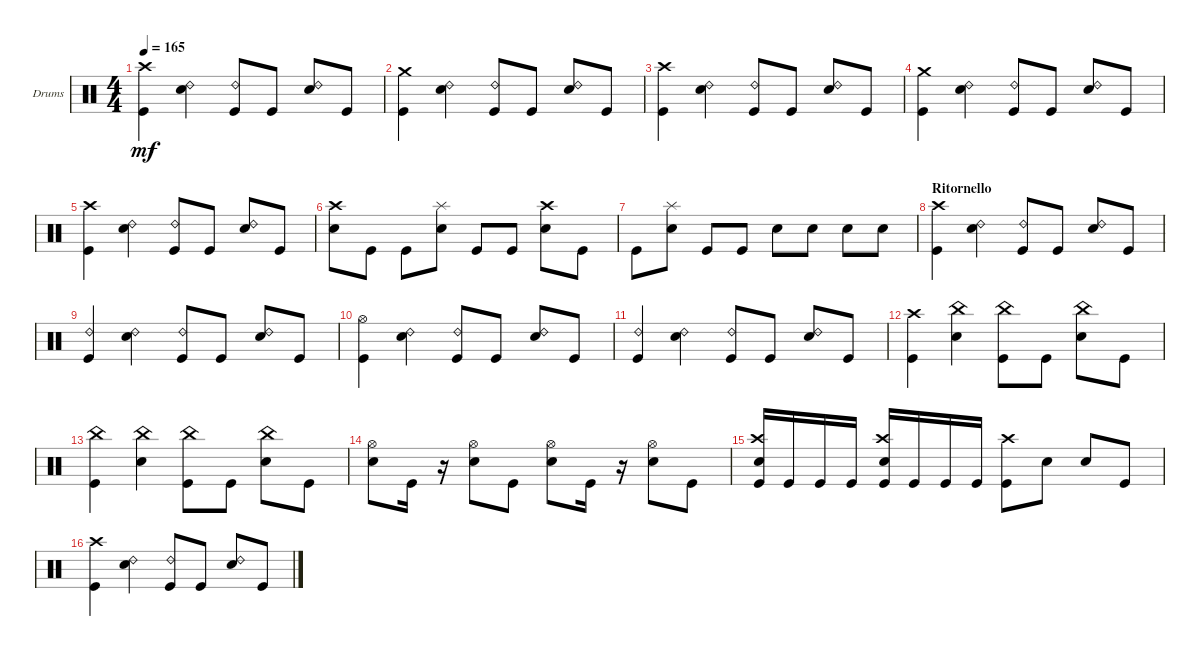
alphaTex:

\bracketExtendMode groupsimilarinstruments
\firstSystemTrackNameOrientation horizontal
\otherSystemsTrackNameOrientation horizontal
\track ("Drums" "Drums") {solo instrument percussion}
\staff {score}
\articulation defaults
\ts (4 4)
\tempo 165
\clef neutral
\ks c
("Kick (hit)" "Crash high (hit)").4{dy mf} ("Snare (hit) 2" "Ride (bell) 2").4 ("Kick (hit)" "Ride (bell) 2").8 "Kick (hit)".8 ("Snare (hit) 2" "Ride (bell) 2").8 "Kick (hit)".8 |
("Kick (hit)" "Crash medium (hit)").4 ("Snare (hit) 2" "Ride (bell) 2").4 ("Kick (hit)" "Ride (bell) 2").8 "Kick (hit)".8 ("Snare (hit) 2" "Ride (bell) 2").8 "Kick (hit)".8 |
("Kick (hit)" "Crash high (hit)").4 ("Snare (hit) 2" "Ride (bell) 2").4 ("Kick (hit)" "Ride (bell) 2").8 "Kick (hit)".8 ("Snare (hit) 2" "Ride (bell) 2").8 "Kick (hit)".8 |
("Kick (hit)" "Crash medium (hit)").4 ("Snare (hit) 2" "Ride (bell) 2").4 ("Kick (hit)" "Ride (bell) 2").8 "Kick (hit)".8 ("Snare (hit) 2" "Ride (bell) 2").8 "Kick (hit)".8 |
("Kick (hit)" "Crash high (hit)").4 ("Snare (hit) 2" "Ride (bell) 2").4 ("Kick (hit)" "Ride (bell) 2").8 "Kick (hit)".8 ("Snare (hit) 2" "Ride (bell) 2").8 "Kick (hit)".8 |
("Snare (hit) 2" "Crash high (hit)").8 "Kick (hit)".8 "Kick (hit)".8 ("Snare (hit) 2" "Splash (hit)").8 "Kick (hit)".8 "Kick (hit)".8 ("Snare (hit) 2" "Crash high (hit)").8 "Kick (hit)".8 |
"Kick (hit)".8 ("Snare (hit) 2" "Splash (hit)").8 "Kick (hit)".8 "Kick (hit)".8 "Snare (hit) 2".8 "Snare (hit) 2".8 "Snare (hit) 2".8 "Snare (hit) 2".8 |
\section ("" "Ritornello")
("Kick (hit)" "Crash high (hit)").4 ("Snare (hit) 2" "Ride (bell) 2").4 ("Kick (hit)" "Ride (bell) 2").8 "Kick (hit)".8 ("Snare (hit) 2" "Ride (bell) 2").8 "Kick (hit)".8 |
("Kick (hit)" "Ride (bell) 2").4 ("Snare (hit) 2" "Ride (bell) 2").4 ("Kick (hit)" "Ride (bell) 2").8 "Kick (hit)".8 ("Snare (hit) 2" "Ride (bell) 2").8 "Kick (hit)".8 |
("Kick (hit)" "Hi-Hat (open)").4 ("Snare (hit) 2" "Ride (bell) 2").4 ("Kick (hit)" "Ride (bell) 2").8 "Kick (hit)".8 ("Snare (hit) 2" "Ride (bell) 2").8 "Kick (hit)".8 |
("Kick (hit)" "Ride (bell) 2").4 ("Snare (hit) 2" "Ride (bell) 2").4 ("Kick (hit)" "Ride (bell) 2").8 "Kick (hit)".8 ("Snare (hit) 2" "Ride (bell) 2").8 "Kick (hit)".8 |
("Kick (hit)" "Crash high (hit)").4 ("Snare (hit) 2" "China (hit)").4 ("Kick (hit)" "China (hit)").8 "Kick (hit)".8 ("Snare (hit) 2" "China (hit)").8 "Kick (hit)".8 |
("Kick (hit)" "China (hit)").4 ("Snare (hit) 2" "China (hit)").4 ("Kick (hit)" "China (hit)").8 "Kick (hit)".8 ("Snare (hit) 2" "China (hit)").8 "Kick (hit)".8 |
("Snare (hit) 2" "Hi-Hat (open)").8 "Kick (hit)".16 r.16 ("Snare (hit) 2" "Hi-Hat (open)").8 "Kick (hit)".8 ("Snare (hit) 2" "Hi-Hat (open)").8 "Kick (hit)".16 r.16 ("Snare (hit) 2" "Hi-Hat (open)").8 "Kick (hit)".8 |
("Kick (hit)" "Snare (hit) 2" "Crash high (hit)").16 "Kick (hit)".16 "Kick (hit)".16 "Kick (hit)".16 ("Kick (hit)" "Snare (hit) 2" "Crash high (hit)").16 "Kick (hit)".16 "Kick (hit)".16 "Kick (hit)".16 ("Crash high (hit)" "Kick (hit)").8 "Snare (hit) 2".8 "Snare (hit) 2".8 "Kick (hit)".8 |
("Kick (hit)" "Crash high (hit)").4 ("Snare (hit) 2" "Ride (bell) 2").4 ("Kick (hit)" "Ride (bell) 2").8 "Kick (hit)".8 ("Snare (hit) 2" "Ride (bell) 2").8 "Kick (hit)".8
